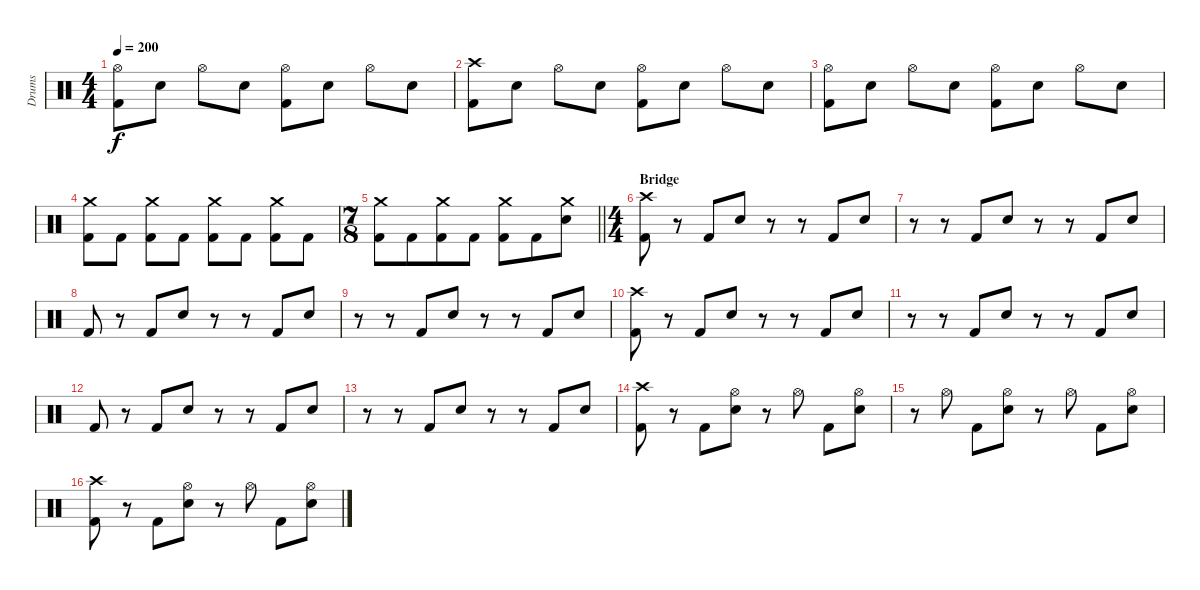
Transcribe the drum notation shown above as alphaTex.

\track ("Drums" "Drums") {instrument percussion}
\staff {score}
\articulation defaults
\ts (4 4)
\tempo 200
\clef neutral
\ks c
("Hi-Hat (open)" "Kick (hit) 2").8{dy f} "Electric Snare (hit)".8 "Hi-Hat (open)".8 "Electric Snare (hit)".8 ("Hi-Hat (open)" "Kick (hit) 2").8 "Electric Snare (hit)".8 "Hi-Hat (open)".8 "Electric Snare (hit)".8 |
("Crash high (hit)" "Kick (hit) 2").8 "Electric Snare (hit)".8 "Hi-Hat (open)".8 "Electric Snare (hit)".8 ("Hi-Hat (open)" "Kick (hit) 2").8 "Electric Snare (hit)".8 "Hi-Hat (open)".8 "Electric Snare (hit)".8 |
("Hi-Hat (open)" "Kick (hit) 2").8 "Electric Snare (hit)".8 "Hi-Hat (open)".8 "Electric Snare (hit)".8 ("Hi-Hat (open)" "Kick (hit) 2").8 "Electric Snare (hit)".8 "Hi-Hat (open)".8 "Electric Snare (hit)".8 |
("Crash medium (hit)" "Kick (hit) 2").8 "Kick (hit) 2".8 ("Crash medium (hit)" "Kick (hit) 2").8 "Kick (hit) 2".8 ("Crash medium (hit)" "Kick (hit) 2").8 "Kick (hit) 2".8 ("Crash medium (hit)" "Kick (hit) 2").8 "Kick (hit) 2".8 |
\ts (7 8)
\barLineRight lightlight
("Crash medium (hit)" "Kick (hit) 2").8 "Kick (hit) 2".8 ("Crash medium (hit)" "Kick (hit) 2").8 "Kick (hit) 2".8 ("Crash medium (hit)" "Kick (hit) 2").8 "Kick (hit) 2".8 ("Crash medium (hit)" "Electric Snare (hit)").8 |
\ts (4 4)
\section ("" "Bridge")
("Crash high (hit)" "Kick (hit) 2").8 r.8 "Kick (hit) 2".8 "Electric Snare (hit)".8 r.8 r.8 "Kick (hit) 2".8 "Electric Snare (hit)".8 |
r.8 r.8 "Kick (hit) 2".8 "Electric Snare (hit)".8 r.8 r.8 "Kick (hit) 2".8 "Electric Snare (hit)".8 |
"Kick (hit) 2".8 r.8 "Kick (hit) 2".8 "Electric Snare (hit)".8 r.8 r.8 "Kick (hit) 2".8 "Electric Snare (hit)".8 |
r.8 r.8 "Kick (hit) 2".8 "Electric Snare (hit)".8 r.8 r.8 "Kick (hit) 2".8 "Electric Snare (hit)".8 |
("Crash high (hit)" "Kick (hit) 2").8 r.8 "Kick (hit) 2".8 "Electric Snare (hit)".8 r.8 r.8 "Kick (hit) 2".8 "Electric Snare (hit)".8 |
r.8 r.8 "Kick (hit) 2".8 "Electric Snare (hit)".8 r.8 r.8 "Kick (hit) 2".8 "Electric Snare (hit)".8 |
"Kick (hit) 2".8 r.8 "Kick (hit) 2".8 "Electric Snare (hit)".8 r.8 r.8 "Kick (hit) 2".8 "Electric Snare (hit)".8 |
r.8 r.8 "Kick (hit) 2".8 "Electric Snare (hit)".8 r.8 r.8 "Kick (hit) 2".8 "Electric Snare (hit)".8 |
("Crash high (hit)" "Kick (hit) 2").8 r.8 "Kick (hit) 2".8 ("Hi-Hat (open)" "Electric Snare (hit)").8 r.8 "Hi-Hat (open)".8 "Kick (hit) 2".8 ("Hi-Hat (open)" "Electric Snare (hit)").8 |
r.8 "Hi-Hat (open)".8 "Kick (hit) 2".8 ("Hi-Hat (open)" "Electric Snare (hit)").8 r.8 "Hi-Hat (open)".8 "Kick (hit) 2".8 ("Hi-Hat (open)" "Electric Snare (hit)").8 |
("Crash high (hit)" "Kick (hit) 2").8 r.8 "Kick (hit) 2".8 ("Hi-Hat (open)" "Electric Snare (hit)").8 r.8 "Hi-Hat (open)".8 "Kick (hit) 2".8 ("Hi-Hat (open)" "Electric Snare (hit)").8
